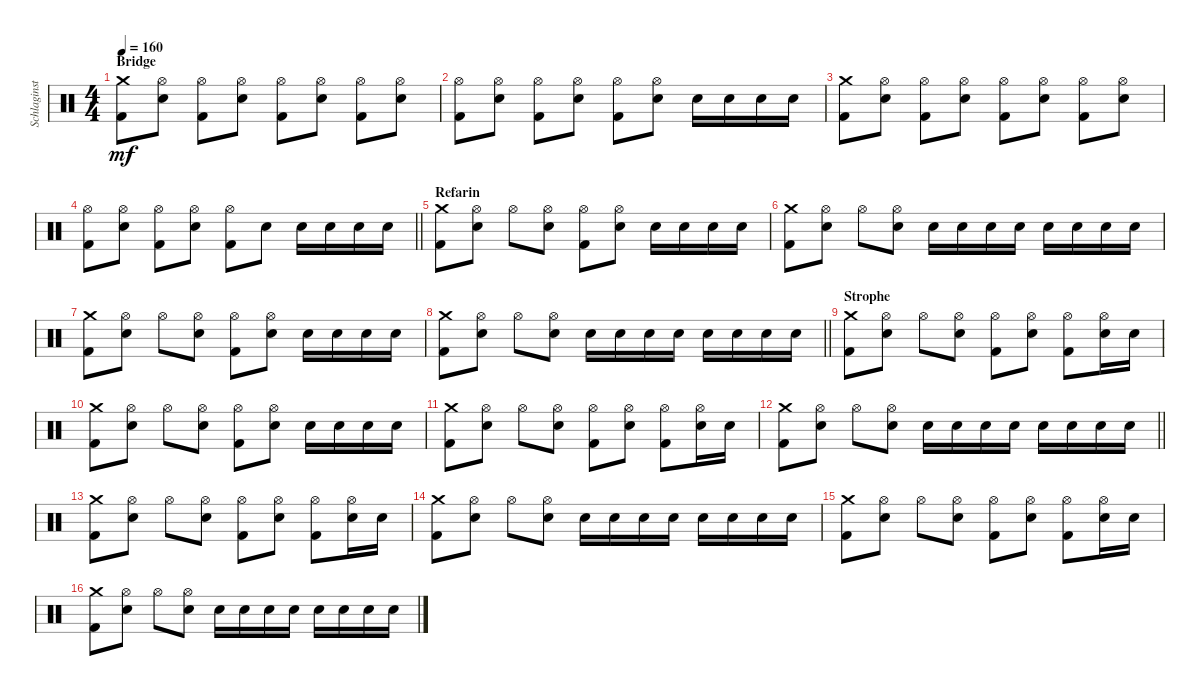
\track ("Schlaginstrumente - Auswahl" "Schlaginst") {instrument percussion}
\staff {score}
\articulation defaults
\ts (4 4)
\section ("" "Bridge")
\tempo 160
\clef neutral
\ks c
("Crash medium (hit)" "Kick (hit) 2").8{dy mf} ("Hi-Hat (open)" "Snare (hit) 2").8 ("Hi-Hat (open)" "Kick (hit) 2").8 ("Hi-Hat (open)" "Snare (hit) 2").8 ("Hi-Hat (open)" "Kick (hit) 2").8 ("Hi-Hat (open)" "Snare (hit) 2").8 ("Hi-Hat (open)" "Kick (hit) 2").8 ("Hi-Hat (open)" "Snare (hit) 2").8 |
("Hi-Hat (open)" "Kick (hit) 2").8 ("Hi-Hat (open)" "Snare (hit) 2").8 ("Hi-Hat (open)" "Kick (hit) 2").8 ("Hi-Hat (open)" "Snare (hit) 2").8 ("Hi-Hat (open)" "Kick (hit) 2").8 ("Hi-Hat (open)" "Snare (hit) 2").8 "Snare (hit) 2".16 "Snare (hit) 2".16 "Snare (hit) 2".16 "Snare (hit) 2".16 |
("Crash medium (hit)" "Kick (hit) 2").8 ("Hi-Hat (open)" "Snare (hit) 2").8 ("Hi-Hat (open)" "Kick (hit) 2").8 ("Hi-Hat (open)" "Snare (hit) 2").8 ("Hi-Hat (open)" "Kick (hit) 2").8 ("Hi-Hat (open)" "Snare (hit) 2").8 ("Hi-Hat (open)" "Kick (hit) 2").8 ("Hi-Hat (open)" "Snare (hit) 2").8 |
\barLineRight lightlight
("Hi-Hat (open)" "Kick (hit) 2").8 ("Hi-Hat (open)" "Snare (hit) 2").8 ("Hi-Hat (open)" "Kick (hit) 2").8 ("Hi-Hat (open)" "Snare (hit) 2").8 ("Hi-Hat (open)" "Kick (hit) 2").8 "Snare (hit) 2".8 "Snare (hit) 2".16 "Snare (hit) 2".16 "Snare (hit) 2".16 "Snare (hit) 2".16 |
\section ("" "Refarin")
("Crash medium (hit)" "Kick (hit) 2").8 ("Hi-Hat (open)" "Snare (hit) 2").8 "Hi-Hat (open)".8 ("Hi-Hat (open)" "Snare (hit) 2").8 ("Hi-Hat (open)" "Kick (hit) 2").8 ("Hi-Hat (open)" "Snare (hit) 2").8 "Snare (hit) 2".16 "Snare (hit) 2".16 "Snare (hit) 2".16 "Snare (hit) 2".16 |
("Crash medium (hit)" "Kick (hit) 2").8 ("Hi-Hat (open)" "Snare (hit) 2").8 "Hi-Hat (open)".8 ("Hi-Hat (open)" "Snare (hit) 2").8 "Snare (hit) 2".16 "Snare (hit) 2".16 "Snare (hit) 2".16 "Snare (hit) 2".16 "Snare (hit) 2".16 "Snare (hit) 2".16 "Snare (hit) 2".16 "Snare (hit) 2".16 |
("Crash medium (hit)" "Kick (hit) 2").8 ("Hi-Hat (open)" "Snare (hit) 2").8 "Hi-Hat (open)".8 ("Hi-Hat (open)" "Snare (hit) 2").8 ("Hi-Hat (open)" "Kick (hit) 2").8 ("Hi-Hat (open)" "Snare (hit) 2").8 "Snare (hit) 2".16 "Snare (hit) 2".16 "Snare (hit) 2".16 "Snare (hit) 2".16 |
\barLineRight lightlight
("Crash medium (hit)" "Kick (hit) 2").8 ("Hi-Hat (open)" "Snare (hit) 2").8 "Hi-Hat (open)".8 ("Hi-Hat (open)" "Snare (hit) 2").8 "Snare (hit) 2".16 "Snare (hit) 2".16 "Snare (hit) 2".16 "Snare (hit) 2".16 "Snare (hit) 2".16 "Snare (hit) 2".16 "Snare (hit) 2".16 "Snare (hit) 2".16 |
\section ("" "Strophe")
("Crash medium (hit)" "Kick (hit) 2").8 ("Hi-Hat (open)" "Snare (hit) 2").8 "Hi-Hat (open)".8 ("Hi-Hat (open)" "Snare (hit) 2").8 ("Hi-Hat (open)" "Kick (hit) 2").8 ("Hi-Hat (open)" "Snare (hit) 2").8 ("Hi-Hat (open)" "Kick (hit) 2").8 ("Hi-Hat (open)" "Snare (hit) 2").16 "Snare (hit) 2".16 |
("Crash medium (hit)" "Kick (hit) 2").8 ("Hi-Hat (open)" "Snare (hit) 2").8 "Hi-Hat (open)".8 ("Hi-Hat (open)" "Snare (hit) 2").8 ("Hi-Hat (open)" "Kick (hit) 2").8 ("Hi-Hat (open)" "Snare (hit) 2").8 "Snare (hit) 2".16 "Snare (hit) 2".16 "Snare (hit) 2".16 "Snare (hit) 2".16 |
("Crash medium (hit)" "Kick (hit) 2").8 ("Hi-Hat (open)" "Snare (hit) 2").8 "Hi-Hat (open)".8 ("Hi-Hat (open)" "Snare (hit) 2").8 ("Hi-Hat (open)" "Kick (hit) 2").8 ("Hi-Hat (open)" "Snare (hit) 2").8 ("Hi-Hat (open)" "Kick (hit) 2").8 ("Hi-Hat (open)" "Snare (hit) 2").16 "Snare (hit) 2".16 |
\barLineRight lightlight
("Crash medium (hit)" "Kick (hit) 2").8 ("Hi-Hat (open)" "Snare (hit) 2").8 "Hi-Hat (open)".8 ("Hi-Hat (open)" "Snare (hit) 2").8 "Snare (hit) 2".16 "Snare (hit) 2".16 "Snare (hit) 2".16 "Snare (hit) 2".16 "Snare (hit) 2".16 "Snare (hit) 2".16 "Snare (hit) 2".16 "Snare (hit) 2".16 |
("Crash medium (hit)" "Kick (hit) 2").8 ("Hi-Hat (open)" "Snare (hit) 2").8 "Hi-Hat (open)".8 ("Hi-Hat (open)" "Snare (hit) 2").8 ("Hi-Hat (open)" "Kick (hit) 2").8 ("Hi-Hat (open)" "Snare (hit) 2").8 ("Hi-Hat (open)" "Kick (hit) 2").8 ("Hi-Hat (open)" "Snare (hit) 2").16 "Snare (hit) 2".16 |
("Crash medium (hit)" "Kick (hit) 2").8 ("Hi-Hat (open)" "Snare (hit) 2").8 "Hi-Hat (open)".8 ("Hi-Hat (open)" "Snare (hit) 2").8 "Snare (hit) 2".16 "Snare (hit) 2".16 "Snare (hit) 2".16 "Snare (hit) 2".16 "Snare (hit) 2".16 "Snare (hit) 2".16 "Snare (hit) 2".16 "Snare (hit) 2".16 |
("Crash medium (hit)" "Kick (hit) 2").8 ("Hi-Hat (open)" "Snare (hit) 2").8 "Hi-Hat (open)".8 ("Hi-Hat (open)" "Snare (hit) 2").8 ("Hi-Hat (open)" "Kick (hit) 2").8 ("Hi-Hat (open)" "Snare (hit) 2").8 ("Hi-Hat (open)" "Kick (hit) 2").8 ("Hi-Hat (open)" "Snare (hit) 2").16 "Snare (hit) 2".16 |
("Crash medium (hit)" "Kick (hit) 2").8 ("Hi-Hat (open)" "Snare (hit) 2").8 "Hi-Hat (open)".8 ("Hi-Hat (open)" "Snare (hit) 2").8 "Snare (hit) 2".16 "Snare (hit) 2".16 "Snare (hit) 2".16 "Snare (hit) 2".16 "Snare (hit) 2".16 "Snare (hit) 2".16 "Snare (hit) 2".16 "Snare (hit) 2".16
